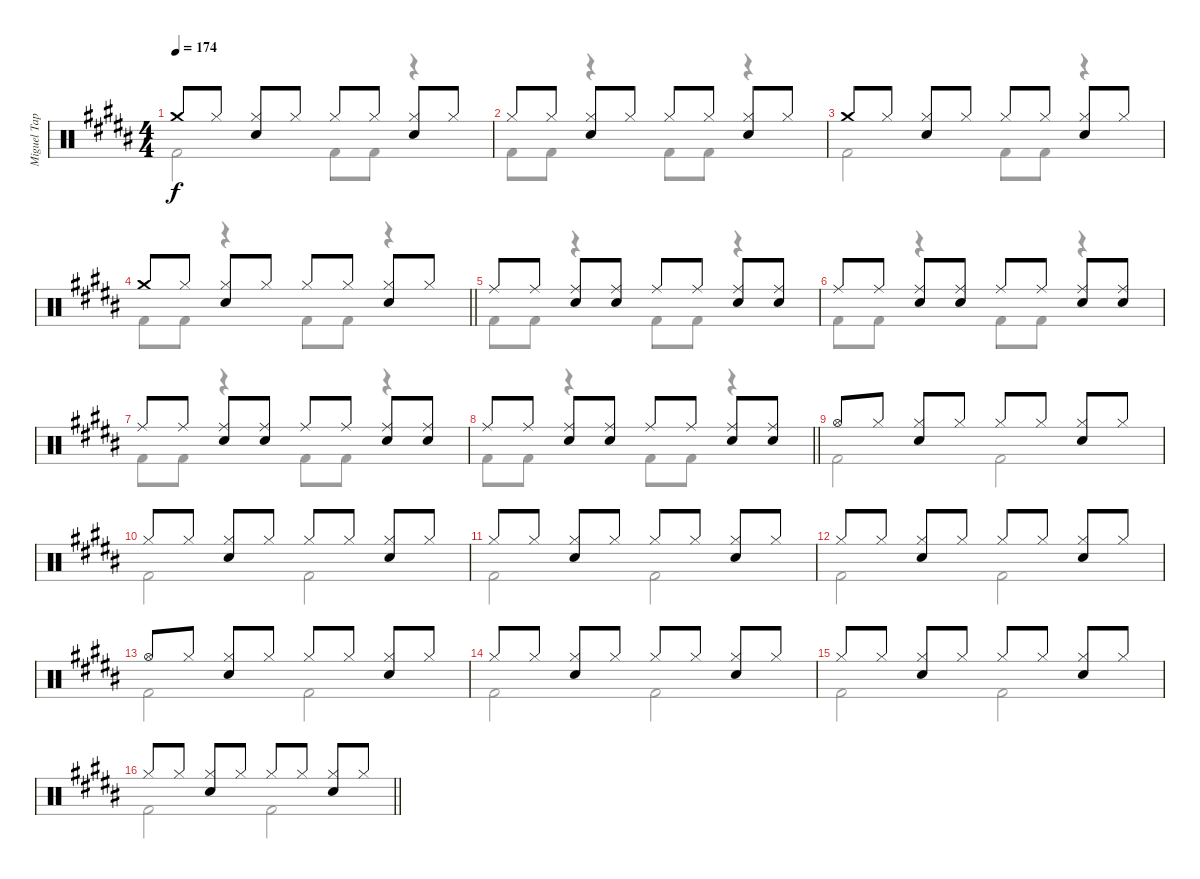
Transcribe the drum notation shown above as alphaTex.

\track ("Miguel Tapia" "Miguel Tap") {instrument percussion}
\staff {score}
\articulation defaults
\voice
\ts (4 4)
\tempo 174
\clef neutral
\ks b "Crash medium (hit)".8{dy f} "Hi-Hat (closed)".8
("Hi-Hat (closed)" "Snare (hit) 2").8 "Hi-Hat (closed)".8 "Hi-Hat (closed)".8 "Hi-Hat (closed)".8 ("Hi-Hat (closed)" "Snare (hit) 2").8 "Hi-Hat (closed)".8 |
"Hi-Hat (closed)".8 "Hi-Hat (closed)".8 ("Hi-Hat (closed)" "Snare (hit) 2").8 "Hi-Hat (closed)".8 "Hi-Hat (closed)".8 "Hi-Hat (closed)".8 ("Hi-Hat (closed)" "Snare (hit) 2").8 "Hi-Hat (closed)".8 |
"Crash medium (hit)".8 "Hi-Hat (closed)".8 ("Hi-Hat (closed)" "Snare (hit) 2").8 "Hi-Hat (closed)".8 "Hi-Hat (closed)".8 "Hi-Hat (closed)".8 ("Hi-Hat (closed)" "Snare (hit) 2").8 "Hi-Hat (closed)".8 |
\barLineRight lightlight "Crash medium (hit)".8 "Hi-Hat (closed)".8
("Hi-Hat (closed)" "Snare (hit) 2").8 "Hi-Hat (closed)".8 "Hi-Hat (closed)".8 "Hi-Hat (closed)".8 ("Hi-Hat (closed)" "Snare (hit) 2").8 "Hi-Hat (closed)".8 |
"Ride (middle)".8 "Ride (middle)".8 ("Ride (middle)" "Snare (hit) 2").8 ("Ride (middle)" "Snare (hit) 2").8 "Ride (middle)".8 "Ride (middle)".8 ("Ride (middle)" "Snare (hit) 2").8 ("Ride (middle)" "Snare (hit) 2").8 |
"Ride (middle)".8 "Ride (middle)".8 ("Ride (middle)" "Snare (hit) 2").8 ("Ride (middle)" "Snare (hit) 2").8 "Ride (middle)".8 "Ride (middle)".8 ("Ride (middle)" "Snare (hit) 2").8 ("Ride (middle)" "Snare (hit) 2").8 |
"Ride (middle)".8 "Ride (middle)".8 ("Ride (middle)" "Snare (hit) 2").8 ("Ride (middle)" "Snare (hit) 2").8 "Ride (middle)".8 "Ride (middle)".8 ("Ride (middle)" "Snare (hit) 2").8 ("Ride (middle)" "Snare (hit) 2").8 |
\barLineRight lightlight "Ride (middle)".8 "Ride (middle)".8
("Ride (middle)" "Snare (hit) 2").8 ("Ride (middle)" "Snare (hit) 2").8 "Ride (middle)".8 "Ride (middle)".8 ("Ride (middle)" "Snare (hit) 2").8 ("Ride (middle)" "Snare (hit) 2").8 |
"Hi-Hat (open)".8 "Hi-Hat (closed)".8 ("Hi-Hat (closed)" "Snare (hit) 2").8 "Hi-Hat (closed)".8 "Hi-Hat (closed)".8 "Hi-Hat (closed)".8 ("Hi-Hat (closed)" "Snare (hit) 2").8 "Hi-Hat (closed)".8 |
"Hi-Hat (closed)".8 "Hi-Hat (closed)".8 ("Hi-Hat (closed)" "Snare (hit) 2").8 "Hi-Hat (closed)".8 "Hi-Hat (closed)".8 "Hi-Hat (closed)".8 ("Hi-Hat (closed)" "Snare (hit) 2").8 "Hi-Hat (closed)".8 |
"Hi-Hat (closed)".8 "Hi-Hat (closed)".8 ("Hi-Hat (closed)" "Snare (hit) 2").8 "Hi-Hat (closed)".8 "Hi-Hat (closed)".8 "Hi-Hat (closed)".8 ("Hi-Hat (closed)" "Snare (hit) 2").8 "Hi-Hat (closed)".8 |
"Hi-Hat (closed)".8 "Hi-Hat (closed)".8 ("Hi-Hat (closed)" "Snare (hit) 2").8 "Hi-Hat (closed)".8 "Hi-Hat (closed)".8 "Hi-Hat (closed)".8 ("Hi-Hat (closed)" "Snare (hit) 2").8 "Hi-Hat (closed)".8 |
"Hi-Hat (open)".8 "Hi-Hat (closed)".8 ("Hi-Hat (closed)" "Snare (hit) 2").8 "Hi-Hat (closed)".8 "Hi-Hat (closed)".8 "Hi-Hat (closed)".8 ("Hi-Hat (closed)" "Snare (hit) 2").8 "Hi-Hat (closed)".8 |
"Hi-Hat (closed)".8 "Hi-Hat (closed)".8 ("Hi-Hat (closed)" "Snare (hit) 2").8 "Hi-Hat (closed)".8 "Hi-Hat (closed)".8 "Hi-Hat (closed)".8 ("Hi-Hat (closed)" "Snare (hit) 2").8 "Hi-Hat (closed)".8 |
"Hi-Hat (closed)".8 "Hi-Hat (closed)".8 ("Hi-Hat (closed)" "Snare (hit) 2").8 "Hi-Hat (closed)".8 "Hi-Hat (closed)".8 "Hi-Hat (closed)".8 ("Hi-Hat (closed)" "Snare (hit) 2").8 "Hi-Hat (closed)".8 |
\barLineRight lightlight "Hi-Hat (closed)".8 "Hi-Hat (closed)".8
("Hi-Hat (closed)" "Snare (hit) 2").8 "Hi-Hat (closed)".8 "Hi-Hat (closed)".8 "Hi-Hat (closed)".8 ("Hi-Hat (closed)" "Snare (hit) 2").8 "Hi-Hat (closed)".8
\voice
\clef neutral
\ottava regular
\simile none
\ks b "Kick (hit) 2".2{dy f} "Kick (hit) 2".8 "Kick (hit) 2".8
r.4 |
"Kick (hit) 2".8 "Kick (hit) 2".8 r.4 "Kick (hit) 2".8 "Kick (hit) 2".8 r.4 |
"Kick (hit) 2".2 "Kick (hit) 2".8 "Kick (hit) 2".8 r.4 |
\barLineRight lightlight "Kick (hit) 2".8 "Kick (hit) 2".8
r.4 "Kick (hit) 2".8 "Kick (hit) 2".8 r.4 |
"Kick (hit) 2".8 "Kick (hit) 2".8 r.4 "Kick (hit) 2".8 "Kick (hit) 2".8 r.4 |
"Kick (hit) 2".8 "Kick (hit) 2".8 r.4 "Kick (hit) 2".8 "Kick (hit) 2".8 r.4 |
"Kick (hit) 2".8 "Kick (hit) 2".8 r.4 "Kick (hit) 2".8 "Kick (hit) 2".8 r.4 |
\barLineRight lightlight "Kick (hit) 2".8 "Kick (hit) 2".8
r.4 "Kick (hit) 2".8 "Kick (hit) 2".8 r.4 |
"Kick (hit) 2".2 "Kick (hit) 2".2 |
"Kick (hit) 2".2 "Kick (hit) 2".2 |
"Kick (hit) 2".2 "Kick (hit) 2".2 |
"Kick (hit) 2".2 "Kick (hit) 2".2 |
"Kick (hit) 2".2 "Kick (hit) 2".2 |
"Kick (hit) 2".2 "Kick (hit) 2".2 |
"Kick (hit) 2".2 "Kick (hit) 2".2 |
\barLineRight lightlight "Kick (hit) 2".2 "Kick (hit) 2".2
